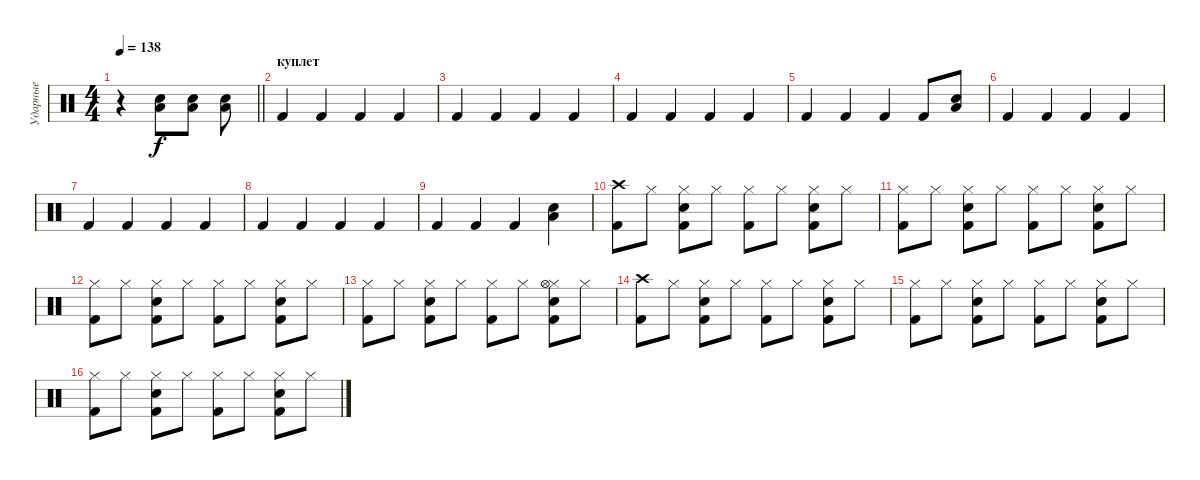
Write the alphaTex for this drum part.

\track ("Ударные" "Ударные") {instrument percussion}
\staff {score}
\articulation defaults
\ts (4 4)
\tempo 138
\clef neutral
\barLineRight lightlight
\ks c
r.4{dy f} ("Electric Snare (hit)" "Low Tom (hit)").8 ("Low Tom (hit)" "Electric Snare (hit)").8 ("Electric Snare (hit)" "Low Tom (hit)").8 |
\section ("" "куплет")
"Kick (hit) 2".4 "Kick (hit) 2".4 "Kick (hit) 2".4 "Kick (hit) 2".4 |
"Kick (hit) 2".4 "Kick (hit) 2".4 "Kick (hit) 2".4 "Kick (hit) 2".4 |
"Kick (hit) 2".4 "Kick (hit) 2".4 "Kick (hit) 2".4 "Kick (hit) 2".4 |
"Kick (hit) 2".4 "Kick (hit) 2".4 "Kick (hit) 2".4 "Kick (hit) 2".8 ("Low Tom (hit)" "Electric Snare (hit)").8 |
"Kick (hit) 2".4 "Kick (hit) 2".4 "Kick (hit) 2".4 "Kick (hit) 2".4 |
"Kick (hit) 2".4 "Kick (hit) 2".4 "Kick (hit) 2".4 "Kick (hit) 2".4 |
"Kick (hit) 2".4 "Kick (hit) 2".4 "Kick (hit) 2".4 "Kick (hit) 2".4 |
"Kick (hit) 2".4 "Kick (hit) 2".4 "Kick (hit) 2".4 ("Low Tom (hit)" "Electric Snare (hit)").4 |
("Crash high (hit)" "Kick (hit) 2").8 "Hi-Hat (closed)".8 ("Hi-Hat (closed)" "Electric Snare (hit)" "Kick (hit) 2").8 "Hi-Hat (closed)".8 ("Hi-Hat (closed)" "Kick (hit) 2").8 "Hi-Hat (closed)".8 ("Hi-Hat (closed)" "Electric Snare (hit)" "Kick (hit) 2").8 "Hi-Hat (closed)".8 |
("Hi-Hat (closed)" "Kick (hit) 2").8 "Hi-Hat (closed)".8 ("Hi-Hat (closed)" "Electric Snare (hit)" "Kick (hit) 2").8 "Hi-Hat (closed)".8 ("Hi-Hat (closed)" "Kick (hit) 2").8 "Hi-Hat (closed)".8 ("Hi-Hat (closed)" "Electric Snare (hit)" "Kick (hit) 2").8 "Hi-Hat (closed)".8 |
("Hi-Hat (closed)" "Kick (hit) 2").8 "Hi-Hat (closed)".8 ("Hi-Hat (closed)" "Electric Snare (hit)" "Kick (hit) 2").8 "Hi-Hat (closed)".8 ("Hi-Hat (closed)" "Kick (hit) 2").8 "Hi-Hat (closed)".8 ("Hi-Hat (closed)" "Electric Snare (hit)" "Kick (hit) 2").8 "Hi-Hat (closed)".8 |
("Hi-Hat (closed)" "Kick (hit) 2").8 "Hi-Hat (closed)".8 ("Hi-Hat (closed)" "Electric Snare (hit)" "Kick (hit) 2").8 "Hi-Hat (closed)".8 ("Hi-Hat (closed)" "Kick (hit) 2").8 "Hi-Hat (closed)".8 ("Hi-Hat (closed)" "Hi-Hat (open)" "Electric Snare (hit)" "Kick (hit) 2").8 "Hi-Hat (closed)".8 |
("Crash high (hit)" "Kick (hit) 2").8 "Hi-Hat (closed)".8 ("Hi-Hat (closed)" "Electric Snare (hit)" "Kick (hit) 2").8 "Hi-Hat (closed)".8 ("Hi-Hat (closed)" "Kick (hit) 2").8 "Hi-Hat (closed)".8 ("Hi-Hat (closed)" "Electric Snare (hit)" "Kick (hit) 2").8 "Hi-Hat (closed)".8 |
("Hi-Hat (closed)" "Kick (hit) 2").8 "Hi-Hat (closed)".8 ("Hi-Hat (closed)" "Electric Snare (hit)" "Kick (hit) 2").8 "Hi-Hat (closed)".8 ("Hi-Hat (closed)" "Kick (hit) 2").8 "Hi-Hat (closed)".8 ("Hi-Hat (closed)" "Electric Snare (hit)" "Kick (hit) 2").8 "Hi-Hat (closed)".8 |
("Hi-Hat (closed)" "Kick (hit) 2").8 "Hi-Hat (closed)".8 ("Hi-Hat (closed)" "Electric Snare (hit)" "Kick (hit) 2").8 "Hi-Hat (closed)".8 ("Hi-Hat (closed)" "Kick (hit) 2").8 "Hi-Hat (closed)".8 ("Hi-Hat (closed)" "Electric Snare (hit)" "Kick (hit) 2").8 "Hi-Hat (closed)".8
